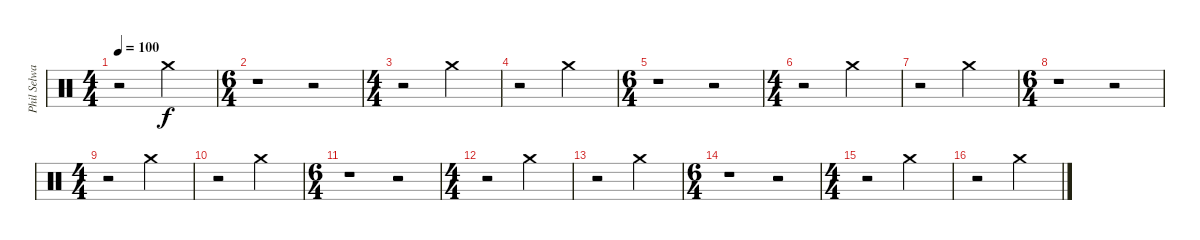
\track ("Phil Selway" "Phil Selwa") {instrument percussion}
\staff {score}
\articulation defaults
\ts (4 4)
\tempo 100
\clef neutral
\ks c
r.2{dy f} "Crash medium (hit)".2 |
\ts (6 4)
r.1 r.2 |
\ts (4 4)
r.2 "Crash medium (hit)".2 |
r.2 "Crash medium (hit)".2 |
\ts (6 4)
r.1 r.2 |
\ts (4 4)
r.2 "Crash medium (hit)".2 |
r.2 "Crash medium (hit)".2 |
\ts (6 4)
r.1 r.2 |
\ts (4 4)
r.2 "Crash medium (hit)".2 |
r.2 "Crash medium (hit)".2 |
\ts (6 4)
r.1 r.2 |
\ts (4 4)
r.2 "Crash medium (hit)".2 |
r.2 "Crash medium (hit)".2 |
\ts (6 4)
r.1 r.2 |
\ts (4 4)
r.2 "Crash medium (hit)".2 |
r.2 "Crash medium (hit)".2
